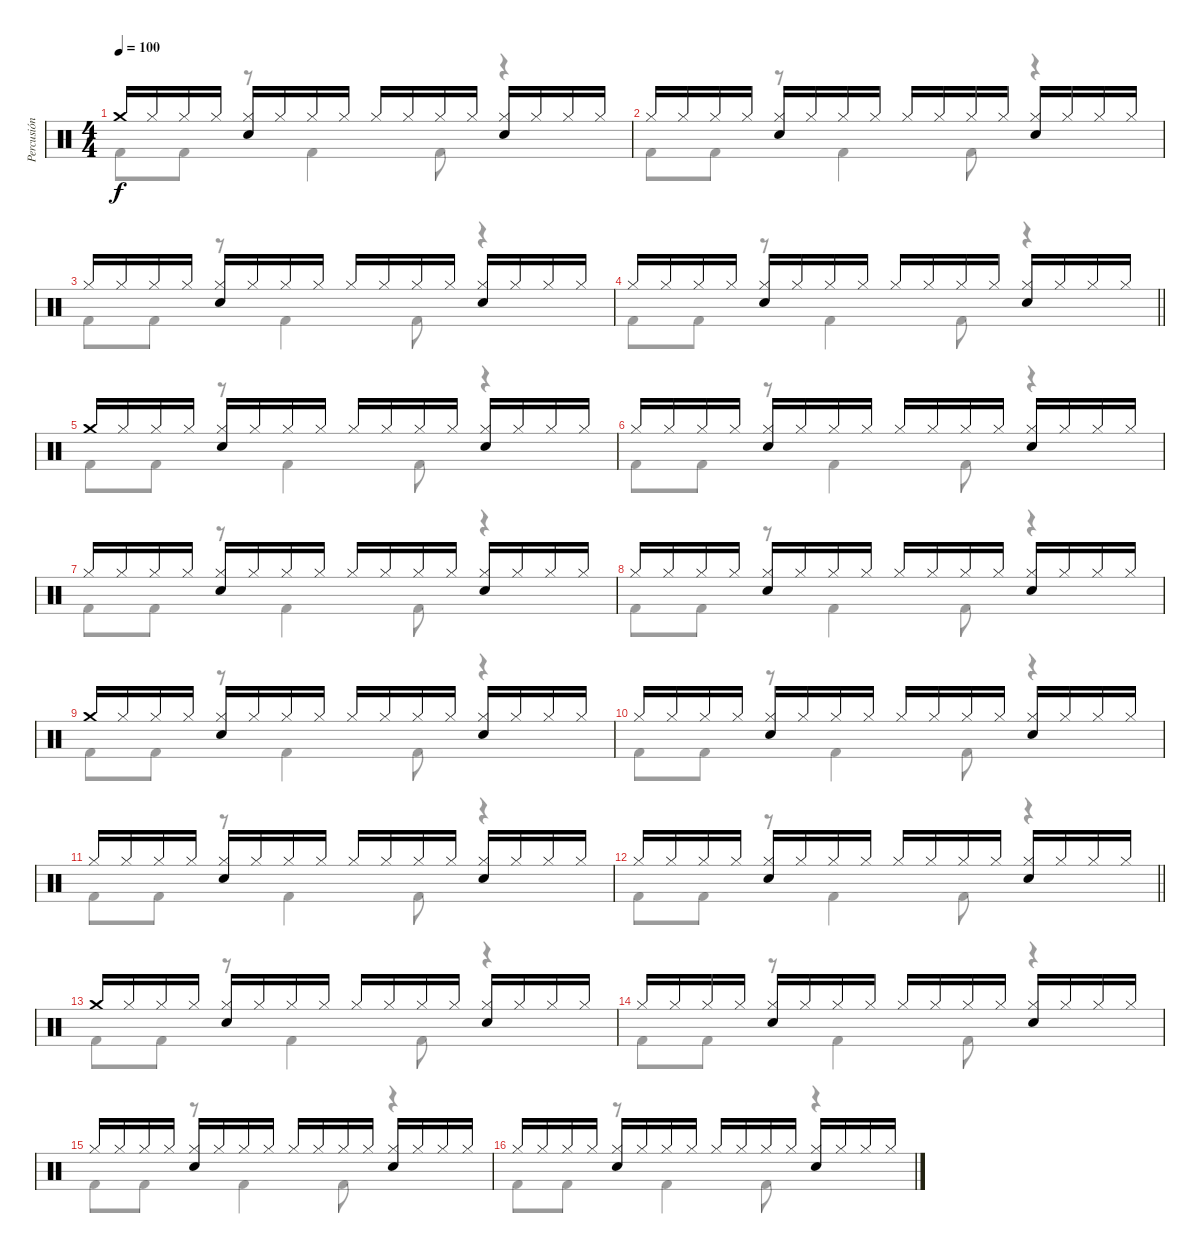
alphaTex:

\track ("Percusión" "Percusión") {instrument percussion}
\staff {score}
\articulation defaults
\voice
\ts (4 4)
\tempo 100
\clef neutral
\ks c "Crash medium (hit)".16{dy f} "Hi-Hat (closed)".16 "Hi-Hat (closed)".16 "Hi-Hat (closed)".16
("Hi-Hat (closed)" "Snare (hit) 2").16 "Hi-Hat (closed)".16 "Hi-Hat (closed)".16 "Hi-Hat (closed)".16 "Hi-Hat (closed)".16 "Hi-Hat (closed)".16 "Hi-Hat (closed)".16 "Hi-Hat (closed)".16 ("Hi-Hat (closed)" "Snare (hit) 2").16 "Hi-Hat (closed)".16 "Hi-Hat (closed)".16 "Hi-Hat (closed)".16 |
"Hi-Hat (closed)".16 "Hi-Hat (closed)".16 "Hi-Hat (closed)".16 "Hi-Hat (closed)".16 ("Hi-Hat (closed)" "Snare (hit) 2").16 "Hi-Hat (closed)".16 "Hi-Hat (closed)".16 "Hi-Hat (closed)".16 "Hi-Hat (closed)".16 "Hi-Hat (closed)".16 "Hi-Hat (closed)".16 "Hi-Hat (closed)".16 ("Hi-Hat (closed)" "Snare (hit) 2").16 "Hi-Hat (closed)".16 "Hi-Hat (closed)".16 "Hi-Hat (closed)".16 |
"Hi-Hat (closed)".16 "Hi-Hat (closed)".16 "Hi-Hat (closed)".16 "Hi-Hat (closed)".16 ("Hi-Hat (closed)" "Snare (hit) 2").16 "Hi-Hat (closed)".16 "Hi-Hat (closed)".16 "Hi-Hat (closed)".16 "Hi-Hat (closed)".16 "Hi-Hat (closed)".16 "Hi-Hat (closed)".16 "Hi-Hat (closed)".16 ("Hi-Hat (closed)" "Snare (hit) 2").16 "Hi-Hat (closed)".16 "Hi-Hat (closed)".16 "Hi-Hat (closed)".16 |
\barLineRight lightlight "Hi-Hat (closed)".16 "Hi-Hat (closed)".16 "Hi-Hat (closed)".16 "Hi-Hat (closed)".16
("Hi-Hat (closed)" "Snare (hit) 2").16 "Hi-Hat (closed)".16 "Hi-Hat (closed)".16 "Hi-Hat (closed)".16 "Hi-Hat (closed)".16 "Hi-Hat (closed)".16 "Hi-Hat (closed)".16 "Hi-Hat (closed)".16 ("Hi-Hat (closed)" "Snare (hit) 2").16 "Hi-Hat (closed)".16 "Hi-Hat (closed)".16 "Hi-Hat (closed)".16 |
"Crash medium (hit)".16 "Hi-Hat (closed)".16 "Hi-Hat (closed)".16 "Hi-Hat (closed)".16 ("Hi-Hat (closed)" "Snare (hit) 2").16 "Hi-Hat (closed)".16 "Hi-Hat (closed)".16 "Hi-Hat (closed)".16 "Hi-Hat (closed)".16 "Hi-Hat (closed)".16 "Hi-Hat (closed)".16 "Hi-Hat (closed)".16 ("Hi-Hat (closed)" "Snare (hit) 2").16 "Hi-Hat (closed)".16 "Hi-Hat (closed)".16 "Hi-Hat (closed)".16 |
"Hi-Hat (closed)".16 "Hi-Hat (closed)".16 "Hi-Hat (closed)".16 "Hi-Hat (closed)".16 ("Hi-Hat (closed)" "Snare (hit) 2").16 "Hi-Hat (closed)".16 "Hi-Hat (closed)".16 "Hi-Hat (closed)".16 "Hi-Hat (closed)".16 "Hi-Hat (closed)".16 "Hi-Hat (closed)".16 "Hi-Hat (closed)".16 ("Hi-Hat (closed)" "Snare (hit) 2").16 "Hi-Hat (closed)".16 "Hi-Hat (closed)".16 "Hi-Hat (closed)".16 |
"Hi-Hat (closed)".16 "Hi-Hat (closed)".16 "Hi-Hat (closed)".16 "Hi-Hat (closed)".16 ("Hi-Hat (closed)" "Snare (hit) 2").16 "Hi-Hat (closed)".16 "Hi-Hat (closed)".16 "Hi-Hat (closed)".16 "Hi-Hat (closed)".16 "Hi-Hat (closed)".16 "Hi-Hat (closed)".16 "Hi-Hat (closed)".16 ("Hi-Hat (closed)" "Snare (hit) 2").16 "Hi-Hat (closed)".16 "Hi-Hat (closed)".16 "Hi-Hat (closed)".16 |
"Hi-Hat (closed)".16 "Hi-Hat (closed)".16 "Hi-Hat (closed)".16 "Hi-Hat (closed)".16 ("Hi-Hat (closed)" "Snare (hit) 2").16 "Hi-Hat (closed)".16 "Hi-Hat (closed)".16 "Hi-Hat (closed)".16 "Hi-Hat (closed)".16 "Hi-Hat (closed)".16 "Hi-Hat (closed)".16 "Hi-Hat (closed)".16 ("Hi-Hat (closed)" "Snare (hit) 2").16 "Hi-Hat (closed)".16 "Hi-Hat (closed)".16 "Hi-Hat (closed)".16 |
"Crash medium (hit)".16 "Hi-Hat (closed)".16 "Hi-Hat (closed)".16 "Hi-Hat (closed)".16 ("Hi-Hat (closed)" "Snare (hit) 2").16 "Hi-Hat (closed)".16 "Hi-Hat (closed)".16 "Hi-Hat (closed)".16 "Hi-Hat (closed)".16 "Hi-Hat (closed)".16 "Hi-Hat (closed)".16 "Hi-Hat (closed)".16 ("Hi-Hat (closed)" "Snare (hit) 2").16 "Hi-Hat (closed)".16 "Hi-Hat (closed)".16 "Hi-Hat (closed)".16 |
"Hi-Hat (closed)".16 "Hi-Hat (closed)".16 "Hi-Hat (closed)".16 "Hi-Hat (closed)".16 ("Hi-Hat (closed)" "Snare (hit) 2").16 "Hi-Hat (closed)".16 "Hi-Hat (closed)".16 "Hi-Hat (closed)".16 "Hi-Hat (closed)".16 "Hi-Hat (closed)".16 "Hi-Hat (closed)".16 "Hi-Hat (closed)".16 ("Hi-Hat (closed)" "Snare (hit) 2").16 "Hi-Hat (closed)".16 "Hi-Hat (closed)".16 "Hi-Hat (closed)".16 |
"Hi-Hat (closed)".16 "Hi-Hat (closed)".16 "Hi-Hat (closed)".16 "Hi-Hat (closed)".16 ("Hi-Hat (closed)" "Snare (hit) 2").16 "Hi-Hat (closed)".16 "Hi-Hat (closed)".16 "Hi-Hat (closed)".16 "Hi-Hat (closed)".16 "Hi-Hat (closed)".16 "Hi-Hat (closed)".16 "Hi-Hat (closed)".16 ("Hi-Hat (closed)" "Snare (hit) 2").16 "Hi-Hat (closed)".16 "Hi-Hat (closed)".16 "Hi-Hat (closed)".16 |
\barLineRight lightlight "Hi-Hat (closed)".16 "Hi-Hat (closed)".16 "Hi-Hat (closed)".16 "Hi-Hat (closed)".16
("Hi-Hat (closed)" "Snare (hit) 2").16 "Hi-Hat (closed)".16 "Hi-Hat (closed)".16 "Hi-Hat (closed)".16 "Hi-Hat (closed)".16 "Hi-Hat (closed)".16 "Hi-Hat (closed)".16 "Hi-Hat (closed)".16 ("Hi-Hat (closed)" "Snare (hit) 2").16 "Hi-Hat (closed)".16 "Hi-Hat (closed)".16 "Hi-Hat (closed)".16 |
"Crash medium (hit)".16 "Hi-Hat (closed)".16 "Hi-Hat (closed)".16 "Hi-Hat (closed)".16 ("Hi-Hat (closed)" "Snare (hit) 2").16 "Hi-Hat (closed)".16 "Hi-Hat (closed)".16 "Hi-Hat (closed)".16 "Hi-Hat (closed)".16 "Hi-Hat (closed)".16 "Hi-Hat (closed)".16 "Hi-Hat (closed)".16 ("Hi-Hat (closed)" "Snare (hit) 2").16 "Hi-Hat (closed)".16 "Hi-Hat (closed)".16 "Hi-Hat (closed)".16 |
"Hi-Hat (closed)".16 "Hi-Hat (closed)".16 "Hi-Hat (closed)".16 "Hi-Hat (closed)".16 ("Hi-Hat (closed)" "Snare (hit) 2").16 "Hi-Hat (closed)".16 "Hi-Hat (closed)".16 "Hi-Hat (closed)".16 "Hi-Hat (closed)".16 "Hi-Hat (closed)".16 "Hi-Hat (closed)".16 "Hi-Hat (closed)".16 ("Hi-Hat (closed)" "Snare (hit) 2").16 "Hi-Hat (closed)".16 "Hi-Hat (closed)".16 "Hi-Hat (closed)".16 |
"Hi-Hat (closed)".16 "Hi-Hat (closed)".16 "Hi-Hat (closed)".16 "Hi-Hat (closed)".16 ("Hi-Hat (closed)" "Snare (hit) 2").16 "Hi-Hat (closed)".16 "Hi-Hat (closed)".16 "Hi-Hat (closed)".16 "Hi-Hat (closed)".16 "Hi-Hat (closed)".16 "Hi-Hat (closed)".16 "Hi-Hat (closed)".16 ("Hi-Hat (closed)" "Snare (hit) 2").16 "Hi-Hat (closed)".16 "Hi-Hat (closed)".16 "Hi-Hat (closed)".16 |
"Hi-Hat (closed)".16 "Hi-Hat (closed)".16 "Hi-Hat (closed)".16 "Hi-Hat (closed)".16 ("Hi-Hat (closed)" "Snare (hit) 2").16 "Hi-Hat (closed)".16 "Hi-Hat (closed)".16 "Hi-Hat (closed)".16 "Hi-Hat (closed)".16 "Hi-Hat (closed)".16 "Hi-Hat (closed)".16 "Hi-Hat (closed)".16 ("Hi-Hat (closed)" "Snare (hit) 2").16 "Hi-Hat (closed)".16 "Hi-Hat (closed)".16 "Hi-Hat (closed)".16
\voice
\clef neutral
\ottava regular
\simile none
\ks c "Kick (hit) 2".8{dy f} "Kick (hit) 2".8
r.8 "Kick (hit) 2".4 "Kick (hit) 2".8 r.4 |
"Kick (hit) 2".8 "Kick (hit) 2".8 r.8 "Kick (hit) 2".4 "Kick (hit) 2".8 r.4 |
"Kick (hit) 2".8 "Kick (hit) 2".8 r.8 "Kick (hit) 2".4 "Kick (hit) 2".8 r.4 |
\barLineRight lightlight "Kick (hit) 2".8 "Kick (hit) 2".8
r.8 "Kick (hit) 2".4 "Kick (hit) 2".8 r.4 |
"Kick (hit) 2".8 "Kick (hit) 2".8 r.8 "Kick (hit) 2".4 "Kick (hit) 2".8 r.4 |
"Kick (hit) 2".8 "Kick (hit) 2".8 r.8 "Kick (hit) 2".4 "Kick (hit) 2".8 r.4 |
"Kick (hit) 2".8 "Kick (hit) 2".8 r.8 "Kick (hit) 2".4 "Kick (hit) 2".8 r.4 |
"Kick (hit) 2".8 "Kick (hit) 2".8 r.8 "Kick (hit) 2".4 "Kick (hit) 2".8 r.4 |
"Kick (hit) 2".8 "Kick (hit) 2".8 r.8 "Kick (hit) 2".4 "Kick (hit) 2".8 r.4 |
"Kick (hit) 2".8 "Kick (hit) 2".8 r.8 "Kick (hit) 2".4 "Kick (hit) 2".8 r.4 |
"Kick (hit) 2".8 "Kick (hit) 2".8 r.8 "Kick (hit) 2".4 "Kick (hit) 2".8 r.4 |
\barLineRight lightlight "Kick (hit) 2".8 "Kick (hit) 2".8
r.8 "Kick (hit) 2".4 "Kick (hit) 2".8 r.4 |
"Kick (hit) 2".8 "Kick (hit) 2".8 r.8 "Kick (hit) 2".4 "Kick (hit) 2".8 r.4 |
"Kick (hit) 2".8 "Kick (hit) 2".8 r.8 "Kick (hit) 2".4 "Kick (hit) 2".8 r.4 |
"Kick (hit) 2".8 "Kick (hit) 2".8 r.8 "Kick (hit) 2".4 "Kick (hit) 2".8 r.4 |
"Kick (hit) 2".8 "Kick (hit) 2".8 r.8 "Kick (hit) 2".4 "Kick (hit) 2".8 r.4
